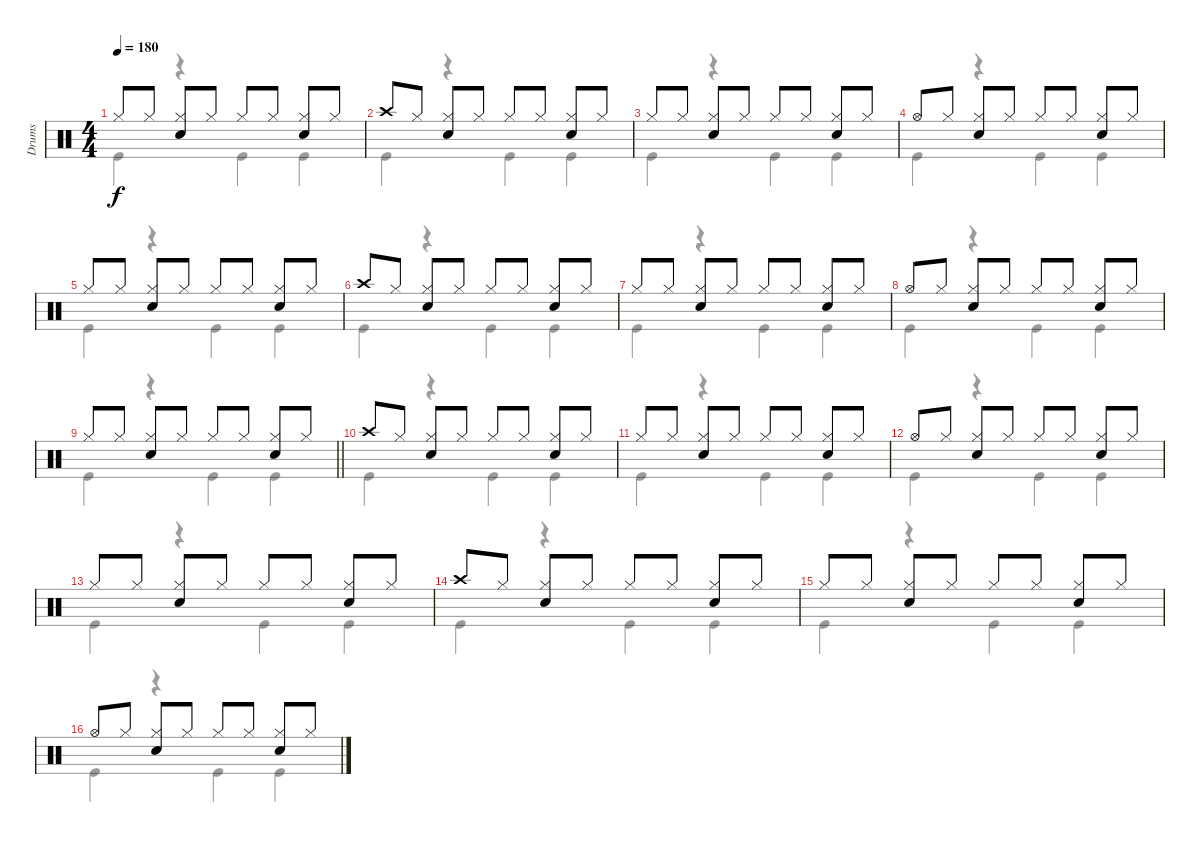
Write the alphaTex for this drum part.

\track ("Drums" "Drums") {instrument percussion}
\staff {score}
\articulation defaults
\voice
\ts (4 4)
\tempo 180
\clef neutral
\ks c "Hi-Hat (closed)".8{dy f} "Hi-Hat (closed)".8
("Hi-Hat (closed)" "Snare (hit) 2").8 "Hi-Hat (closed)".8 "Hi-Hat (closed)".8 "Hi-Hat (closed)".8 ("Hi-Hat (closed)" "Snare (hit) 2").8 "Hi-Hat (closed)".8 |
"Crash high (hit)".8 "Hi-Hat (closed)".8 ("Hi-Hat (closed)" "Snare (hit) 2").8 "Hi-Hat (closed)".8 "Hi-Hat (closed)".8 "Hi-Hat (closed)".8 ("Hi-Hat (closed)" "Snare (hit) 2").8 "Hi-Hat (closed)".8 |
"Hi-Hat (closed)".8 "Hi-Hat (closed)".8 ("Hi-Hat (closed)" "Snare (hit) 2").8 "Hi-Hat (closed)".8 "Hi-Hat (closed)".8 "Hi-Hat (closed)".8 ("Hi-Hat (closed)" "Snare (hit) 2").8 "Hi-Hat (closed)".8 |
"Hi-Hat (open)".8 "Hi-Hat (closed)".8 ("Hi-Hat (closed)" "Snare (hit) 2").8 "Hi-Hat (closed)".8 "Hi-Hat (closed)".8 "Hi-Hat (closed)".8 ("Hi-Hat (closed)" "Snare (hit) 2").8 "Hi-Hat (closed)".8 |
"Hi-Hat (closed)".8 "Hi-Hat (closed)".8 ("Hi-Hat (closed)" "Snare (hit) 2").8 "Hi-Hat (closed)".8 "Hi-Hat (closed)".8 "Hi-Hat (closed)".8 ("Hi-Hat (closed)" "Snare (hit) 2").8 "Hi-Hat (closed)".8 |
"Crash high (hit)".8 "Hi-Hat (closed)".8 ("Hi-Hat (closed)" "Snare (hit) 2").8 "Hi-Hat (closed)".8 "Hi-Hat (closed)".8 "Hi-Hat (closed)".8 ("Hi-Hat (closed)" "Snare (hit) 2").8 "Hi-Hat (closed)".8 |
"Hi-Hat (closed)".8 "Hi-Hat (closed)".8 ("Hi-Hat (closed)" "Snare (hit) 2").8 "Hi-Hat (closed)".8 "Hi-Hat (closed)".8 "Hi-Hat (closed)".8 ("Hi-Hat (closed)" "Snare (hit) 2").8 "Hi-Hat (closed)".8 |
"Hi-Hat (open)".8 "Hi-Hat (closed)".8 ("Hi-Hat (closed)" "Snare (hit) 2").8 "Hi-Hat (closed)".8 "Hi-Hat (closed)".8 "Hi-Hat (closed)".8 ("Hi-Hat (closed)" "Snare (hit) 2").8 "Hi-Hat (closed)".8 |
\barLineRight lightlight "Hi-Hat (closed)".8 "Hi-Hat (closed)".8
("Hi-Hat (closed)" "Snare (hit) 2").8 "Hi-Hat (closed)".8 "Hi-Hat (closed)".8 "Hi-Hat (closed)".8 ("Hi-Hat (closed)" "Snare (hit) 2").8 "Hi-Hat (closed)".8 |
"Crash high (hit)".8 "Hi-Hat (closed)".8 ("Hi-Hat (closed)" "Snare (hit) 2").8 "Hi-Hat (closed)".8 "Hi-Hat (closed)".8 "Hi-Hat (closed)".8 ("Hi-Hat (closed)" "Snare (hit) 2").8 "Hi-Hat (closed)".8 |
"Hi-Hat (closed)".8 "Hi-Hat (closed)".8 ("Hi-Hat (closed)" "Snare (hit) 2").8 "Hi-Hat (closed)".8 "Hi-Hat (closed)".8 "Hi-Hat (closed)".8 ("Hi-Hat (closed)" "Snare (hit) 2").8 "Hi-Hat (closed)".8 |
"Hi-Hat (open)".8 "Hi-Hat (closed)".8 ("Hi-Hat (closed)" "Snare (hit) 2").8 "Hi-Hat (closed)".8 "Hi-Hat (closed)".8 "Hi-Hat (closed)".8 ("Hi-Hat (closed)" "Snare (hit) 2").8 "Hi-Hat (closed)".8 |
"Hi-Hat (closed)".8 "Hi-Hat (closed)".8 ("Hi-Hat (closed)" "Snare (hit) 2").8 "Hi-Hat (closed)".8 "Hi-Hat (closed)".8 "Hi-Hat (closed)".8 ("Hi-Hat (closed)" "Snare (hit) 2").8 "Hi-Hat (closed)".8 |
"Crash high (hit)".8 "Hi-Hat (closed)".8 ("Hi-Hat (closed)" "Snare (hit) 2").8 "Hi-Hat (closed)".8 "Hi-Hat (closed)".8 "Hi-Hat (closed)".8 ("Hi-Hat (closed)" "Snare (hit) 2").8 "Hi-Hat (closed)".8 |
"Hi-Hat (closed)".8 "Hi-Hat (closed)".8 ("Hi-Hat (closed)" "Snare (hit) 2").8 "Hi-Hat (closed)".8 "Hi-Hat (closed)".8 "Hi-Hat (closed)".8 ("Hi-Hat (closed)" "Snare (hit) 2").8 "Hi-Hat (closed)".8 |
"Hi-Hat (open)".8 "Hi-Hat (closed)".8 ("Hi-Hat (closed)" "Snare (hit) 2").8 "Hi-Hat (closed)".8 "Hi-Hat (closed)".8 "Hi-Hat (closed)".8 ("Hi-Hat (closed)" "Snare (hit) 2").8 "Hi-Hat (closed)".8
\voice
\clef neutral
\ottava regular
\simile none
\ks c "Kick (hit)".4{dy f}
r.4 "Kick (hit)".4 "Kick (hit)".4 |
"Kick (hit)".4 r.4 "Kick (hit)".4 "Kick (hit)".4 |
"Kick (hit)".4 r.4 "Kick (hit)".4 "Kick (hit)".4 |
"Kick (hit)".4 r.4 "Kick (hit)".4 "Kick (hit)".4 |
"Kick (hit)".4 r.4 "Kick (hit)".4 "Kick (hit)".4 |
"Kick (hit)".4 r.4 "Kick (hit)".4 "Kick (hit)".4 |
"Kick (hit)".4 r.4 "Kick (hit)".4 "Kick (hit)".4 |
"Kick (hit)".4 r.4 "Kick (hit)".4 "Kick (hit)".4 |
\barLineRight lightlight "Kick (hit)".4
r.4 "Kick (hit)".4 "Kick (hit)".4 |
"Kick (hit)".4 r.4 "Kick (hit)".4 "Kick (hit)".4 |
"Kick (hit)".4 r.4 "Kick (hit)".4 "Kick (hit)".4 |
"Kick (hit)".4 r.4 "Kick (hit)".4 "Kick (hit)".4 |
"Kick (hit)".4 r.4 "Kick (hit)".4 "Kick (hit)".4 |
"Kick (hit)".4 r.4 "Kick (hit)".4 "Kick (hit)".4 |
"Kick (hit)".4 r.4 "Kick (hit)".4 "Kick (hit)".4 |
"Kick (hit)".4 r.4 "Kick (hit)".4 "Kick (hit)".4
